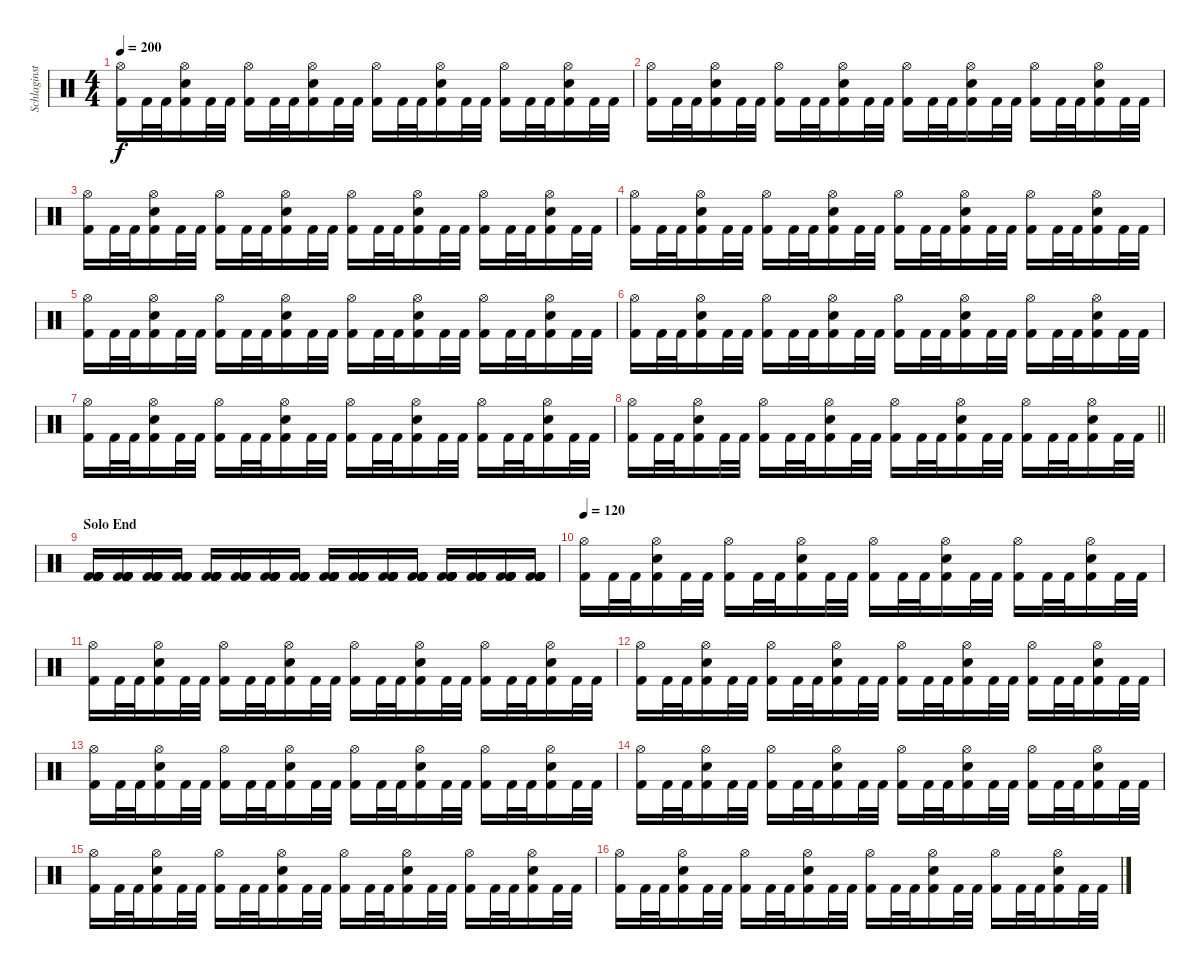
\track ("Schlaginstrumente - Auswahl" "Schlaginst") {instrument percussion}
\staff {score}
\articulation defaults
\ts (4 4)
\tempo 200
\clef neutral
\ks c
("Hi-Hat (open)" "Kick (hit) 2").16{dy f} "Kick (hit) 2".32 "Kick (hit) 2".32 ("Hi-Hat (open)" "Electric Snare (hit)" "Kick (hit) 2").16 "Kick (hit) 2".32 "Kick (hit) 2".32 ("Hi-Hat (open)" "Kick (hit) 2").16 "Kick (hit) 2".32 "Kick (hit) 2".32 ("Hi-Hat (open)" "Electric Snare (hit)" "Kick (hit) 2").16 "Kick (hit) 2".32 "Kick (hit) 2".32 ("Hi-Hat (open)" "Kick (hit) 2").16 "Kick (hit) 2".32 "Kick (hit) 2".32 ("Hi-Hat (open)" "Electric Snare (hit)" "Kick (hit) 2").16 "Kick (hit) 2".32 "Kick (hit) 2".32 ("Hi-Hat (open)" "Kick (hit) 2").16 "Kick (hit) 2".32 "Kick (hit) 2".32 ("Hi-Hat (open)" "Electric Snare (hit)" "Kick (hit) 2").16 "Kick (hit) 2".32 "Kick (hit) 2".32 |
("Hi-Hat (open)" "Kick (hit) 2").16 "Kick (hit) 2".32 "Kick (hit) 2".32 ("Hi-Hat (open)" "Electric Snare (hit)" "Kick (hit) 2").16 "Kick (hit) 2".32 "Kick (hit) 2".32 ("Hi-Hat (open)" "Kick (hit) 2").16 "Kick (hit) 2".32 "Kick (hit) 2".32 ("Hi-Hat (open)" "Electric Snare (hit)" "Kick (hit) 2").16 "Kick (hit) 2".32 "Kick (hit) 2".32 ("Hi-Hat (open)" "Kick (hit) 2").16 "Kick (hit) 2".32 "Kick (hit) 2".32 ("Hi-Hat (open)" "Electric Snare (hit)" "Kick (hit) 2").16 "Kick (hit) 2".32 "Kick (hit) 2".32 ("Hi-Hat (open)" "Kick (hit) 2").16 "Kick (hit) 2".32 "Kick (hit) 2".32 ("Hi-Hat (open)" "Electric Snare (hit)" "Kick (hit) 2").16 "Kick (hit) 2".32 "Kick (hit) 2".32 |
("Hi-Hat (open)" "Kick (hit) 2").16 "Kick (hit) 2".32 "Kick (hit) 2".32 ("Hi-Hat (open)" "Electric Snare (hit)" "Kick (hit) 2").16 "Kick (hit) 2".32 "Kick (hit) 2".32 ("Hi-Hat (open)" "Kick (hit) 2").16 "Kick (hit) 2".32 "Kick (hit) 2".32 ("Hi-Hat (open)" "Electric Snare (hit)" "Kick (hit) 2").16 "Kick (hit) 2".32 "Kick (hit) 2".32 ("Hi-Hat (open)" "Kick (hit) 2").16 "Kick (hit) 2".32 "Kick (hit) 2".32 ("Hi-Hat (open)" "Electric Snare (hit)" "Kick (hit) 2").16 "Kick (hit) 2".32 "Kick (hit) 2".32 ("Hi-Hat (open)" "Kick (hit) 2").16 "Kick (hit) 2".32 "Kick (hit) 2".32 ("Hi-Hat (open)" "Electric Snare (hit)" "Kick (hit) 2").16 "Kick (hit) 2".32 "Kick (hit) 2".32 |
("Hi-Hat (open)" "Kick (hit) 2").16 "Kick (hit) 2".32 "Kick (hit) 2".32 ("Hi-Hat (open)" "Electric Snare (hit)" "Kick (hit) 2").16 "Kick (hit) 2".32 "Kick (hit) 2".32 ("Hi-Hat (open)" "Kick (hit) 2").16 "Kick (hit) 2".32 "Kick (hit) 2".32 ("Hi-Hat (open)" "Electric Snare (hit)" "Kick (hit) 2").16 "Kick (hit) 2".32 "Kick (hit) 2".32 ("Hi-Hat (open)" "Kick (hit) 2").16 "Kick (hit) 2".32 "Kick (hit) 2".32 ("Hi-Hat (open)" "Electric Snare (hit)" "Kick (hit) 2").16 "Kick (hit) 2".32 "Kick (hit) 2".32 ("Hi-Hat (open)" "Kick (hit) 2").16 "Kick (hit) 2".32 "Kick (hit) 2".32 ("Hi-Hat (open)" "Electric Snare (hit)" "Kick (hit) 2").16 "Kick (hit) 2".32 "Kick (hit) 2".32 |
("Hi-Hat (open)" "Kick (hit) 2").16 "Kick (hit) 2".32 "Kick (hit) 2".32 ("Hi-Hat (open)" "Electric Snare (hit)" "Kick (hit) 2").16 "Kick (hit) 2".32 "Kick (hit) 2".32 ("Hi-Hat (open)" "Kick (hit) 2").16 "Kick (hit) 2".32 "Kick (hit) 2".32 ("Hi-Hat (open)" "Electric Snare (hit)" "Kick (hit) 2").16 "Kick (hit) 2".32 "Kick (hit) 2".32 ("Hi-Hat (open)" "Kick (hit) 2").16 "Kick (hit) 2".32 "Kick (hit) 2".32 ("Hi-Hat (open)" "Electric Snare (hit)" "Kick (hit) 2").16 "Kick (hit) 2".32 "Kick (hit) 2".32 ("Hi-Hat (open)" "Kick (hit) 2").16 "Kick (hit) 2".32 "Kick (hit) 2".32 ("Hi-Hat (open)" "Electric Snare (hit)" "Kick (hit) 2").16 "Kick (hit) 2".32 "Kick (hit) 2".32 |
("Hi-Hat (open)" "Kick (hit) 2").16 "Kick (hit) 2".32 "Kick (hit) 2".32 ("Hi-Hat (open)" "Electric Snare (hit)" "Kick (hit) 2").16 "Kick (hit) 2".32 "Kick (hit) 2".32 ("Hi-Hat (open)" "Kick (hit) 2").16 "Kick (hit) 2".32 "Kick (hit) 2".32 ("Hi-Hat (open)" "Electric Snare (hit)" "Kick (hit) 2").16 "Kick (hit) 2".32 "Kick (hit) 2".32 ("Hi-Hat (open)" "Kick (hit) 2").16 "Kick (hit) 2".32 "Kick (hit) 2".32 ("Hi-Hat (open)" "Electric Snare (hit)" "Kick (hit) 2").16 "Kick (hit) 2".32 "Kick (hit) 2".32 ("Hi-Hat (open)" "Kick (hit) 2").16 "Kick (hit) 2".32 "Kick (hit) 2".32 ("Hi-Hat (open)" "Electric Snare (hit)" "Kick (hit) 2").16 "Kick (hit) 2".32 "Kick (hit) 2".32 |
("Hi-Hat (open)" "Kick (hit) 2").16 "Kick (hit) 2".32 "Kick (hit) 2".32 ("Hi-Hat (open)" "Electric Snare (hit)" "Kick (hit) 2").16 "Kick (hit) 2".32 "Kick (hit) 2".32 ("Hi-Hat (open)" "Kick (hit) 2").16 "Kick (hit) 2".32 "Kick (hit) 2".32 ("Hi-Hat (open)" "Electric Snare (hit)" "Kick (hit) 2").16 "Kick (hit) 2".32 "Kick (hit) 2".32 ("Hi-Hat (open)" "Kick (hit) 2").16 "Kick (hit) 2".32 "Kick (hit) 2".32 ("Hi-Hat (open)" "Electric Snare (hit)" "Kick (hit) 2").16 "Kick (hit) 2".32 "Kick (hit) 2".32 ("Hi-Hat (open)" "Kick (hit) 2").16 "Kick (hit) 2".32 "Kick (hit) 2".32 ("Hi-Hat (open)" "Electric Snare (hit)" "Kick (hit) 2").16 "Kick (hit) 2".32 "Kick (hit) 2".32 |
\barLineRight lightlight
("Hi-Hat (open)" "Kick (hit) 2").16 "Kick (hit) 2".32 "Kick (hit) 2".32 ("Hi-Hat (open)" "Electric Snare (hit)" "Kick (hit) 2").16 "Kick (hit) 2".32 "Kick (hit) 2".32 ("Hi-Hat (open)" "Kick (hit) 2").16 "Kick (hit) 2".32 "Kick (hit) 2".32 ("Hi-Hat (open)" "Electric Snare (hit)" "Kick (hit) 2").16 "Kick (hit) 2".32 "Kick (hit) 2".32 ("Hi-Hat (open)" "Kick (hit) 2").16 "Kick (hit) 2".32 "Kick (hit) 2".32 ("Hi-Hat (open)" "Electric Snare (hit)" "Kick (hit) 2").16 "Kick (hit) 2".32 "Kick (hit) 2".32 ("Hi-Hat (open)" "Kick (hit) 2").16 "Kick (hit) 2".32 "Kick (hit) 2".32 ("Hi-Hat (open)" "Electric Snare (hit)" "Kick (hit) 2").16 "Kick (hit) 2".32 "Kick (hit) 2".32 |
\section ("" "Solo End")
("Kick (hit) 2" "Kick (hit) 2" "Kick (hit) 2" "Kick (hit) 2" "Kick (hit) 2" "Kick (hit) 2").16 ("Kick (hit) 2" "Kick (hit) 2" "Kick (hit) 2" "Kick (hit) 2" "Kick (hit) 2" "Kick (hit) 2").16 ("Kick (hit) 2" "Kick (hit) 2" "Kick (hit) 2" "Kick (hit) 2" "Kick (hit) 2" "Kick (hit) 2").16 ("Kick (hit) 2" "Kick (hit) 2" "Kick (hit) 2" "Kick (hit) 2" "Kick (hit) 2" "Kick (hit) 2").16 ("Kick (hit) 2" "Kick (hit) 2" "Kick (hit) 2" "Kick (hit) 2" "Kick (hit) 2" "Kick (hit) 2").16 ("Kick (hit) 2" "Kick (hit) 2" "Kick (hit) 2" "Kick (hit) 2" "Kick (hit) 2" "Kick (hit) 2").16 ("Kick (hit) 2" "Kick (hit) 2" "Kick (hit) 2" "Kick (hit) 2" "Kick (hit) 2" "Kick (hit) 2").16 ("Kick (hit) 2" "Kick (hit) 2" "Kick (hit) 2" "Kick (hit) 2" "Kick (hit) 2" "Kick (hit) 2").16 ("Kick (hit) 2" "Kick (hit) 2" "Kick (hit) 2" "Kick (hit) 2" "Kick (hit) 2" "Kick (hit) 2").16 ("Kick (hit) 2" "Kick (hit) 2" "Kick (hit) 2" "Kick (hit) 2" "Kick (hit) 2" "Kick (hit) 2").16 ("Kick (hit) 2" "Kick (hit) 2" "Kick (hit) 2" "Kick (hit) 2" "Kick (hit) 2" "Kick (hit) 2").16 ("Kick (hit) 2" "Kick (hit) 2" "Kick (hit) 2" "Kick (hit) 2" "Kick (hit) 2" "Kick (hit) 2").16 ("Kick (hit) 2" "Kick (hit) 2" "Kick (hit) 2" "Kick (hit) 2" "Kick (hit) 2" "Kick (hit) 2").16 ("Kick (hit) 2" "Kick (hit) 2" "Kick (hit) 2" "Kick (hit) 2" "Kick (hit) 2" "Kick (hit) 2").16 ("Kick (hit) 2" "Kick (hit) 2" "Kick (hit) 2" "Kick (hit) 2" "Kick (hit) 2" "Kick (hit) 2").16 ("Kick (hit) 2" "Kick (hit) 2" "Kick (hit) 2" "Kick (hit) 2" "Kick (hit) 2" "Kick (hit) 2").16 |
\tempo 120
("Hi-Hat (open)" "Kick (hit) 2").16 "Kick (hit) 2".32 "Kick (hit) 2".32 ("Hi-Hat (open)" "Electric Snare (hit)" "Kick (hit) 2").16 "Kick (hit) 2".32 "Kick (hit) 2".32 ("Hi-Hat (open)" "Kick (hit) 2").16 "Kick (hit) 2".32 "Kick (hit) 2".32 ("Hi-Hat (open)" "Electric Snare (hit)" "Kick (hit) 2").16 "Kick (hit) 2".32 "Kick (hit) 2".32 ("Hi-Hat (open)" "Kick (hit) 2").16 "Kick (hit) 2".32 "Kick (hit) 2".32 ("Hi-Hat (open)" "Electric Snare (hit)" "Kick (hit) 2").16 "Kick (hit) 2".32 "Kick (hit) 2".32 ("Hi-Hat (open)" "Kick (hit) 2").16 "Kick (hit) 2".32 "Kick (hit) 2".32 ("Hi-Hat (open)" "Electric Snare (hit)" "Kick (hit) 2").16 "Kick (hit) 2".32 "Kick (hit) 2".32 |
("Hi-Hat (open)" "Kick (hit) 2").16 "Kick (hit) 2".32 "Kick (hit) 2".32 ("Hi-Hat (open)" "Electric Snare (hit)" "Kick (hit) 2").16 "Kick (hit) 2".32 "Kick (hit) 2".32 ("Hi-Hat (open)" "Kick (hit) 2").16 "Kick (hit) 2".32 "Kick (hit) 2".32 ("Hi-Hat (open)" "Electric Snare (hit)" "Kick (hit) 2").16 "Kick (hit) 2".32 "Kick (hit) 2".32 ("Hi-Hat (open)" "Kick (hit) 2").16 "Kick (hit) 2".32 "Kick (hit) 2".32 ("Hi-Hat (open)" "Electric Snare (hit)" "Kick (hit) 2").16 "Kick (hit) 2".32 "Kick (hit) 2".32 ("Hi-Hat (open)" "Kick (hit) 2").16 "Kick (hit) 2".32 "Kick (hit) 2".32 ("Hi-Hat (open)" "Electric Snare (hit)" "Kick (hit) 2").16 "Kick (hit) 2".32 "Kick (hit) 2".32 |
("Hi-Hat (open)" "Kick (hit) 2").16 "Kick (hit) 2".32 "Kick (hit) 2".32 ("Hi-Hat (open)" "Electric Snare (hit)" "Kick (hit) 2").16 "Kick (hit) 2".32 "Kick (hit) 2".32 ("Hi-Hat (open)" "Kick (hit) 2").16 "Kick (hit) 2".32 "Kick (hit) 2".32 ("Hi-Hat (open)" "Electric Snare (hit)" "Kick (hit) 2").16 "Kick (hit) 2".32 "Kick (hit) 2".32 ("Hi-Hat (open)" "Kick (hit) 2").16 "Kick (hit) 2".32 "Kick (hit) 2".32 ("Hi-Hat (open)" "Electric Snare (hit)" "Kick (hit) 2").16 "Kick (hit) 2".32 "Kick (hit) 2".32 ("Hi-Hat (open)" "Kick (hit) 2").16 "Kick (hit) 2".32 "Kick (hit) 2".32 ("Hi-Hat (open)" "Electric Snare (hit)" "Kick (hit) 2").16 "Kick (hit) 2".32 "Kick (hit) 2".32 |
("Hi-Hat (open)" "Kick (hit) 2").16 "Kick (hit) 2".32 "Kick (hit) 2".32 ("Hi-Hat (open)" "Electric Snare (hit)" "Kick (hit) 2").16 "Kick (hit) 2".32 "Kick (hit) 2".32 ("Hi-Hat (open)" "Kick (hit) 2").16 "Kick (hit) 2".32 "Kick (hit) 2".32 ("Hi-Hat (open)" "Electric Snare (hit)" "Kick (hit) 2").16 "Kick (hit) 2".32 "Kick (hit) 2".32 ("Hi-Hat (open)" "Kick (hit) 2").16 "Kick (hit) 2".32 "Kick (hit) 2".32 ("Hi-Hat (open)" "Electric Snare (hit)" "Kick (hit) 2").16 "Kick (hit) 2".32 "Kick (hit) 2".32 ("Hi-Hat (open)" "Kick (hit) 2").16 "Kick (hit) 2".32 "Kick (hit) 2".32 ("Hi-Hat (open)" "Electric Snare (hit)" "Kick (hit) 2").16 "Kick (hit) 2".32 "Kick (hit) 2".32 |
("Hi-Hat (open)" "Kick (hit) 2").16 "Kick (hit) 2".32 "Kick (hit) 2".32 ("Hi-Hat (open)" "Electric Snare (hit)" "Kick (hit) 2").16 "Kick (hit) 2".32 "Kick (hit) 2".32 ("Hi-Hat (open)" "Kick (hit) 2").16 "Kick (hit) 2".32 "Kick (hit) 2".32 ("Hi-Hat (open)" "Electric Snare (hit)" "Kick (hit) 2").16 "Kick (hit) 2".32 "Kick (hit) 2".32 ("Hi-Hat (open)" "Kick (hit) 2").16 "Kick (hit) 2".32 "Kick (hit) 2".32 ("Hi-Hat (open)" "Electric Snare (hit)" "Kick (hit) 2").16 "Kick (hit) 2".32 "Kick (hit) 2".32 ("Hi-Hat (open)" "Kick (hit) 2").16 "Kick (hit) 2".32 "Kick (hit) 2".32 ("Hi-Hat (open)" "Electric Snare (hit)" "Kick (hit) 2").16 "Kick (hit) 2".32 "Kick (hit) 2".32 |
("Hi-Hat (open)" "Kick (hit) 2").16 "Kick (hit) 2".32 "Kick (hit) 2".32 ("Hi-Hat (open)" "Electric Snare (hit)" "Kick (hit) 2").16 "Kick (hit) 2".32 "Kick (hit) 2".32 ("Hi-Hat (open)" "Kick (hit) 2").16 "Kick (hit) 2".32 "Kick (hit) 2".32 ("Hi-Hat (open)" "Electric Snare (hit)" "Kick (hit) 2").16 "Kick (hit) 2".32 "Kick (hit) 2".32 ("Hi-Hat (open)" "Kick (hit) 2").16 "Kick (hit) 2".32 "Kick (hit) 2".32 ("Hi-Hat (open)" "Electric Snare (hit)" "Kick (hit) 2").16 "Kick (hit) 2".32 "Kick (hit) 2".32 ("Hi-Hat (open)" "Kick (hit) 2").16 "Kick (hit) 2".32 "Kick (hit) 2".32 ("Hi-Hat (open)" "Electric Snare (hit)" "Kick (hit) 2").16 "Kick (hit) 2".32 "Kick (hit) 2".32 |
("Hi-Hat (open)" "Kick (hit) 2").16 "Kick (hit) 2".32 "Kick (hit) 2".32 ("Hi-Hat (open)" "Electric Snare (hit)" "Kick (hit) 2").16 "Kick (hit) 2".32 "Kick (hit) 2".32 ("Hi-Hat (open)" "Kick (hit) 2").16 "Kick (hit) 2".32 "Kick (hit) 2".32 ("Hi-Hat (open)" "Electric Snare (hit)" "Kick (hit) 2").16 "Kick (hit) 2".32 "Kick (hit) 2".32 ("Hi-Hat (open)" "Kick (hit) 2").16 "Kick (hit) 2".32 "Kick (hit) 2".32 ("Hi-Hat (open)" "Electric Snare (hit)" "Kick (hit) 2").16 "Kick (hit) 2".32 "Kick (hit) 2".32 ("Hi-Hat (open)" "Kick (hit) 2").16 "Kick (hit) 2".32 "Kick (hit) 2".32 ("Hi-Hat (open)" "Electric Snare (hit)" "Kick (hit) 2").16 "Kick (hit) 2".32 "Kick (hit) 2".32
